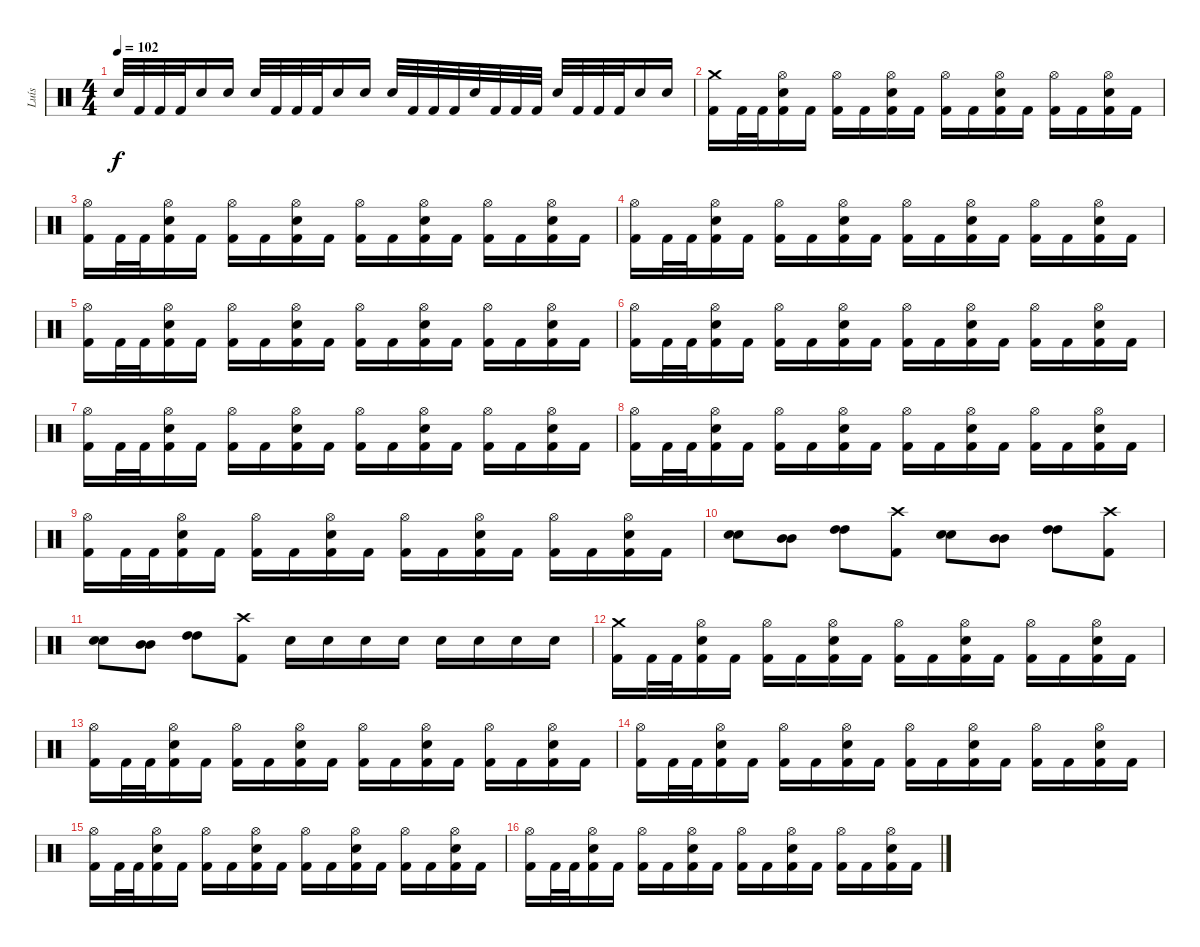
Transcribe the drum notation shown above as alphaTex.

\track ("Luís" "Luís") {instrument percussion}
\staff {score}
\articulation defaults
\ts (4 4)
\tempo 102
\clef neutral
\ks c "Snare (hit) 2".32{dy f} "Kick (hit) 2".32 "Kick (hit) 2".32 "Kick (hit) 2".32 "Snare (hit) 2".16 "Snare (hit) 2".16 "Snare (hit) 2".32 "Kick (hit) 2".32 "Kick (hit) 2".32 "Kick (hit) 2".32 "Snare (hit) 2".16 "Snare (hit) 2".16 "Snare (hit) 2".32 "Kick (hit) 2".32 "Kick (hit) 2".32 "Kick (hit) 2".32 "Snare (hit) 2".32 "Kick (hit) 2".32 "Kick (hit) 2".32 "Kick (hit) 2".32 "Snare (hit) 2".32 "Kick (hit) 2".32 "Kick (hit) 2".32 "Kick (hit) 2".32 "Snare (hit) 2".16 "Snare (hit) 2".16
|
("Crash medium (hit)" "Kick (hit) 2").16 "Kick (hit) 2".32 "Kick (hit) 2".32 ("Hi-Hat (open)" "Snare (hit) 2" "Kick (hit) 2").16 "Kick (hit) 2".16 ("Hi-Hat (open)" "Kick (hit) 2").16 "Kick (hit) 2".16 ("Hi-Hat (open)" "Snare (hit) 2" "Kick (hit) 2").16 "Kick (hit) 2".16 ("Hi-Hat (open)" "Kick (hit) 2").16 "Kick (hit) 2".16 ("Hi-Hat (open)" "Snare (hit) 2" "Kick (hit) 2").16 "Kick (hit) 2".16 ("Hi-Hat (open)" "Kick (hit) 2").16 "Kick (hit) 2".16 ("Hi-Hat (open)" "Snare (hit) 2" "Kick (hit) 2").16 "Kick (hit) 2".16 |
("Hi-Hat (open)" "Kick (hit) 2").16 "Kick (hit) 2".32 "Kick (hit) 2".32 ("Hi-Hat (open)" "Snare (hit) 2" "Kick (hit) 2").16 "Kick (hit) 2".16 ("Hi-Hat (open)" "Kick (hit) 2").16 "Kick (hit) 2".16 ("Hi-Hat (open)" "Snare (hit) 2" "Kick (hit) 2").16 "Kick (hit) 2".16 ("Hi-Hat (open)" "Kick (hit) 2").16 "Kick (hit) 2".16 ("Hi-Hat (open)" "Snare (hit) 2" "Kick (hit) 2").16 "Kick (hit) 2".16 ("Hi-Hat (open)" "Kick (hit) 2").16 "Kick (hit) 2".16 ("Hi-Hat (open)" "Snare (hit) 2" "Kick (hit) 2").16 "Kick (hit) 2".16 |
("Hi-Hat (open)" "Kick (hit) 2").16 "Kick (hit) 2".32 "Kick (hit) 2".32 ("Hi-Hat (open)" "Snare (hit) 2" "Kick (hit) 2").16 "Kick (hit) 2".16 ("Hi-Hat (open)" "Kick (hit) 2").16 "Kick (hit) 2".16 ("Hi-Hat (open)" "Snare (hit) 2" "Kick (hit) 2").16 "Kick (hit) 2".16 ("Hi-Hat (open)" "Kick (hit) 2").16 "Kick (hit) 2".16 ("Hi-Hat (open)" "Snare (hit) 2" "Kick (hit) 2").16 "Kick (hit) 2".16 ("Hi-Hat (open)" "Kick (hit) 2").16 "Kick (hit) 2".16 ("Hi-Hat (open)" "Snare (hit) 2" "Kick (hit) 2").16 "Kick (hit) 2".16 |
("Hi-Hat (open)" "Kick (hit) 2").16 "Kick (hit) 2".32 "Kick (hit) 2".32 ("Hi-Hat (open)" "Snare (hit) 2" "Kick (hit) 2").16 "Kick (hit) 2".16 ("Hi-Hat (open)" "Kick (hit) 2").16 "Kick (hit) 2".16 ("Hi-Hat (open)" "Snare (hit) 2" "Kick (hit) 2").16 "Kick (hit) 2".16 ("Hi-Hat (open)" "Kick (hit) 2").16 "Kick (hit) 2".16 ("Hi-Hat (open)" "Snare (hit) 2" "Kick (hit) 2").16 "Kick (hit) 2".16 ("Hi-Hat (open)" "Kick (hit) 2").16 "Kick (hit) 2".16 ("Hi-Hat (open)" "Snare (hit) 2" "Kick (hit) 2").16 "Kick (hit) 2".16 |
("Hi-Hat (open)" "Kick (hit) 2").16 "Kick (hit) 2".32 "Kick (hit) 2".32 ("Hi-Hat (open)" "Snare (hit) 2" "Kick (hit) 2").16 "Kick (hit) 2".16 ("Hi-Hat (open)" "Kick (hit) 2").16 "Kick (hit) 2".16 ("Hi-Hat (open)" "Snare (hit) 2" "Kick (hit) 2").16 "Kick (hit) 2".16 ("Hi-Hat (open)" "Kick (hit) 2").16 "Kick (hit) 2".16 ("Hi-Hat (open)" "Snare (hit) 2" "Kick (hit) 2").16 "Kick (hit) 2".16 ("Hi-Hat (open)" "Kick (hit) 2").16 "Kick (hit) 2".16 ("Hi-Hat (open)" "Snare (hit) 2" "Kick (hit) 2").16 "Kick (hit) 2".16 |
("Hi-Hat (open)" "Kick (hit) 2").16 "Kick (hit) 2".32 "Kick (hit) 2".32 ("Hi-Hat (open)" "Snare (hit) 2" "Kick (hit) 2").16 "Kick (hit) 2".16 ("Hi-Hat (open)" "Kick (hit) 2").16 "Kick (hit) 2".16 ("Hi-Hat (open)" "Snare (hit) 2" "Kick (hit) 2").16 "Kick (hit) 2".16 ("Hi-Hat (open)" "Kick (hit) 2").16 "Kick (hit) 2".16 ("Hi-Hat (open)" "Snare (hit) 2" "Kick (hit) 2").16 "Kick (hit) 2".16 ("Hi-Hat (open)" "Kick (hit) 2").16 "Kick (hit) 2".16 ("Hi-Hat (open)" "Snare (hit) 2" "Kick (hit) 2").16 "Kick (hit) 2".16 |
("Hi-Hat (open)" "Kick (hit) 2").16 "Kick (hit) 2".32 "Kick (hit) 2".32 ("Hi-Hat (open)" "Snare (hit) 2" "Kick (hit) 2").16 "Kick (hit) 2".16 ("Hi-Hat (open)" "Kick (hit) 2").16 "Kick (hit) 2".16 ("Hi-Hat (open)" "Snare (hit) 2" "Kick (hit) 2").16 "Kick (hit) 2".16 ("Hi-Hat (open)" "Kick (hit) 2").16 "Kick (hit) 2".16 ("Hi-Hat (open)" "Snare (hit) 2" "Kick (hit) 2").16 "Kick (hit) 2".16 ("Hi-Hat (open)" "Kick (hit) 2").16 "Kick (hit) 2".16 ("Hi-Hat (open)" "Snare (hit) 2" "Kick (hit) 2").16 "Kick (hit) 2".16 |
("Hi-Hat (open)" "Kick (hit) 2").16 "Kick (hit) 2".32 "Kick (hit) 2".32 ("Hi-Hat (open)" "Snare (hit) 2" "Kick (hit) 2").16 "Kick (hit) 2".16 ("Hi-Hat (open)" "Kick (hit) 2").16 "Kick (hit) 2".16 ("Hi-Hat (open)" "Snare (hit) 2" "Kick (hit) 2").16 "Kick (hit) 2".16 ("Hi-Hat (open)" "Kick (hit) 2").16 "Kick (hit) 2".16 ("Hi-Hat (open)" "Snare (hit) 2" "Kick (hit) 2").16 "Kick (hit) 2".16 ("Hi-Hat (open)" "Kick (hit) 2").16 "Kick (hit) 2".16 ("Hi-Hat (open)" "Snare (hit) 2" "Kick (hit) 2").16 "Kick (hit) 2".16 |
("Snare (hit) 2" "Snare (hit) 2").8 ("Mid Tom (hit)" "Mid Tom (hit)").8 ("High Tom (hit)" "High Tom (hit)").8 ("Crash high (hit)" "Kick (hit) 2").8 ("Snare (hit) 2" "Snare (hit) 2").8 ("Mid Tom (hit)" "Mid Tom (hit)").8 ("High Tom (hit)" "High Tom (hit)").8 ("Crash high (hit)" "Kick (hit) 2").8 |
("Snare (hit) 2" "Snare (hit) 2").8 ("Mid Tom (hit)" "Mid Tom (hit)").8 ("High Tom (hit)" "High Tom (hit)").8 ("Crash high (hit)" "Kick (hit) 2").8 "Snare (hit) 2".16 "Snare (hit) 2".16 "Snare (hit) 2".16 "Snare (hit) 2".16 "Snare (hit) 2".16 "Snare (hit) 2".16 "Snare (hit) 2".16 "Snare (hit) 2".16 |
("Crash medium (hit)" "Kick (hit) 2").16 "Kick (hit) 2".32 "Kick (hit) 2".32 ("Hi-Hat (open)" "Snare (hit) 2" "Kick (hit) 2").16 "Kick (hit) 2".16 ("Hi-Hat (open)" "Kick (hit) 2").16 "Kick (hit) 2".16 ("Hi-Hat (open)" "Snare (hit) 2" "Kick (hit) 2").16 "Kick (hit) 2".16 ("Hi-Hat (open)" "Kick (hit) 2").16 "Kick (hit) 2".16 ("Hi-Hat (open)" "Snare (hit) 2" "Kick (hit) 2").16 "Kick (hit) 2".16 ("Hi-Hat (open)" "Kick (hit) 2").16 "Kick (hit) 2".16 ("Hi-Hat (open)" "Snare (hit) 2" "Kick (hit) 2").16 "Kick (hit) 2".16 |
("Hi-Hat (open)" "Kick (hit) 2").16 "Kick (hit) 2".32 "Kick (hit) 2".32 ("Hi-Hat (open)" "Snare (hit) 2" "Kick (hit) 2").16 "Kick (hit) 2".16 ("Hi-Hat (open)" "Kick (hit) 2").16 "Kick (hit) 2".16 ("Hi-Hat (open)" "Snare (hit) 2" "Kick (hit) 2").16 "Kick (hit) 2".16 ("Hi-Hat (open)" "Kick (hit) 2").16 "Kick (hit) 2".16 ("Hi-Hat (open)" "Snare (hit) 2" "Kick (hit) 2").16 "Kick (hit) 2".16 ("Hi-Hat (open)" "Kick (hit) 2").16 "Kick (hit) 2".16 ("Hi-Hat (open)" "Snare (hit) 2" "Kick (hit) 2").16 "Kick (hit) 2".16 |
("Hi-Hat (open)" "Kick (hit) 2").16 "Kick (hit) 2".32 "Kick (hit) 2".32 ("Hi-Hat (open)" "Snare (hit) 2" "Kick (hit) 2").16 "Kick (hit) 2".16 ("Hi-Hat (open)" "Kick (hit) 2").16 "Kick (hit) 2".16 ("Hi-Hat (open)" "Snare (hit) 2" "Kick (hit) 2").16 "Kick (hit) 2".16 ("Hi-Hat (open)" "Kick (hit) 2").16 "Kick (hit) 2".16 ("Hi-Hat (open)" "Snare (hit) 2" "Kick (hit) 2").16 "Kick (hit) 2".16 ("Hi-Hat (open)" "Kick (hit) 2").16 "Kick (hit) 2".16 ("Hi-Hat (open)" "Snare (hit) 2" "Kick (hit) 2").16 "Kick (hit) 2".16 |
("Hi-Hat (open)" "Kick (hit) 2").16 "Kick (hit) 2".32 "Kick (hit) 2".32 ("Hi-Hat (open)" "Snare (hit) 2" "Kick (hit) 2").16 "Kick (hit) 2".16 ("Hi-Hat (open)" "Kick (hit) 2").16 "Kick (hit) 2".16 ("Hi-Hat (open)" "Snare (hit) 2" "Kick (hit) 2").16 "Kick (hit) 2".16 ("Hi-Hat (open)" "Kick (hit) 2").16 "Kick (hit) 2".16 ("Hi-Hat (open)" "Snare (hit) 2" "Kick (hit) 2").16 "Kick (hit) 2".16 ("Hi-Hat (open)" "Kick (hit) 2").16 "Kick (hit) 2".16 ("Hi-Hat (open)" "Snare (hit) 2" "Kick (hit) 2").16 "Kick (hit) 2".16 |
("Hi-Hat (open)" "Kick (hit) 2").16 "Kick (hit) 2".32 "Kick (hit) 2".32 ("Hi-Hat (open)" "Snare (hit) 2" "Kick (hit) 2").16 "Kick (hit) 2".16 ("Hi-Hat (open)" "Kick (hit) 2").16 "Kick (hit) 2".16 ("Hi-Hat (open)" "Snare (hit) 2" "Kick (hit) 2").16 "Kick (hit) 2".16 ("Hi-Hat (open)" "Kick (hit) 2").16 "Kick (hit) 2".16 ("Hi-Hat (open)" "Snare (hit) 2" "Kick (hit) 2").16 "Kick (hit) 2".16 ("Hi-Hat (open)" "Kick (hit) 2").16 "Kick (hit) 2".16 ("Hi-Hat (open)" "Snare (hit) 2" "Kick (hit) 2").16 "Kick (hit) 2".16
